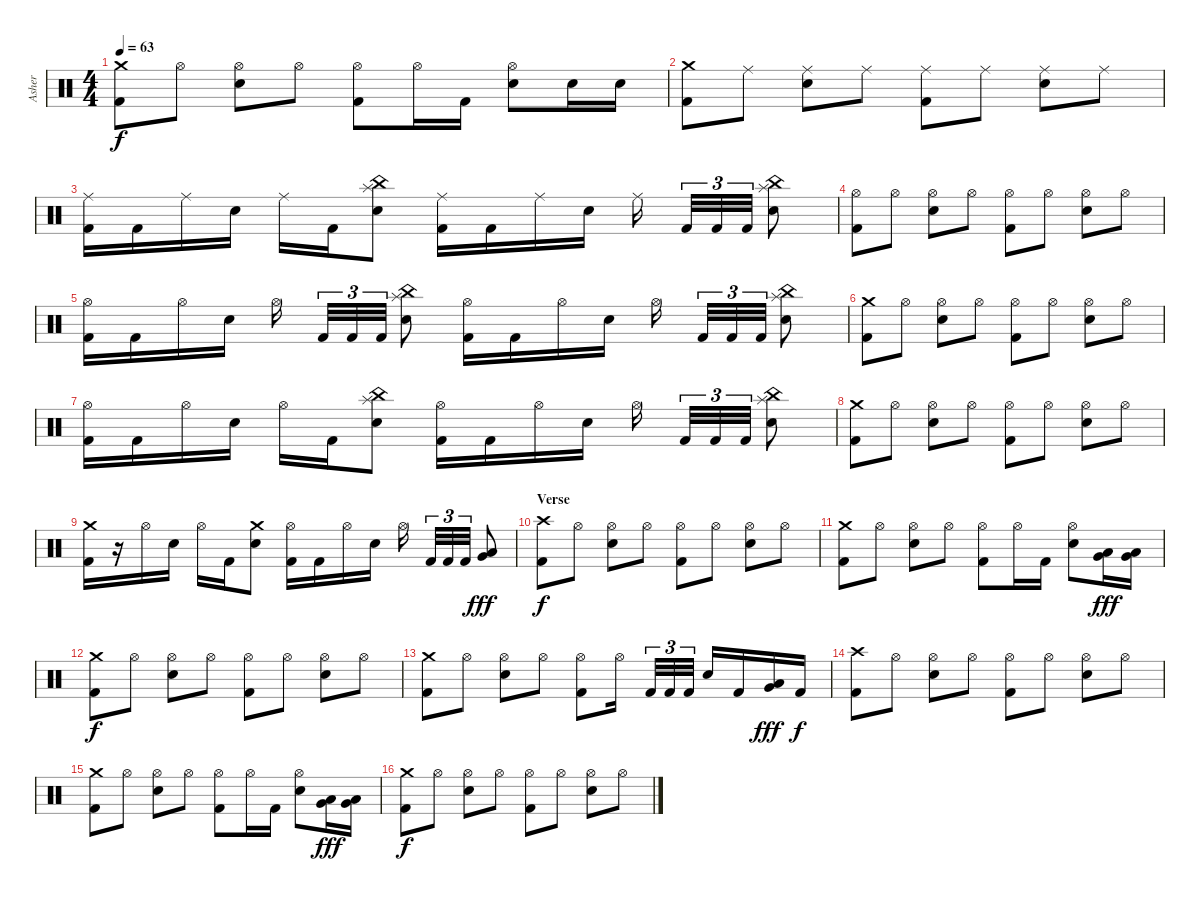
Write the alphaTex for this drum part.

\track ("Asher" "Asher") {instrument percussion}
\staff {score}
\articulation defaults
\ts (4 4)
\tempo 63
\clef neutral
\ks c
("Crash medium (hit)" "Kick (hit) 2").8{dy f} "Hi-Hat (open)".8 ("Hi-Hat (open)" "Electric Snare (hit)").8 "Hi-Hat (open)".8 ("Hi-Hat (open)" "Kick (hit) 2").8 "Hi-Hat (open)".16 "Kick (hit) 2".16 ("Hi-Hat (open)" "Electric Snare (hit)").8 "Electric Snare (hit)".16 "Electric Snare (hit)".16 |
("Crash medium (hit)" "Kick (hit) 2").8 "Ride (middle)".8 ("Ride (middle)" "Electric Snare (hit)").8 "Ride (middle)".8 ("Ride (middle)" "Kick (hit) 2").8 "Ride (middle)".8 ("Ride (middle)" "Electric Snare (hit)").8 "Ride (middle)".8 |
("Ride (middle)" "Kick (hit) 2").16 "Kick (hit) 2".16 "Ride (middle)".16 "Electric Snare (hit)".16 "Ride (middle)".16 "Kick (hit) 2".16 ("China (hit)" "Splash (hit)" "Electric Snare (hit)").8 ("Ride (middle)" "Kick (hit) 2").16 "Kick (hit) 2".16 "Ride (middle)".16 "Electric Snare (hit)".16 "Ride (middle)".16 "Kick (hit) 2".32{tu (3 2)} "Kick (hit) 2".32{tu (3 2)} "Kick (hit) 2".32{tu (3 2)} ("China (hit)" "Splash (hit)" "Electric Snare (hit)").8 |
("Hi-Hat (open)" "Kick (hit) 2").8 "Hi-Hat (open)".8 ("Hi-Hat (open)" "Electric Snare (hit)").8 "Hi-Hat (open)".8 ("Hi-Hat (open)" "Kick (hit) 2").8 "Hi-Hat (open)".8 ("Hi-Hat (open)" "Electric Snare (hit)").8 "Hi-Hat (open)".8 |
("Hi-Hat (open)" "Kick (hit) 2").16 "Kick (hit) 2".16 "Hi-Hat (open)".16 "Electric Snare (hit)".16 "Hi-Hat (open)".16 "Kick (hit) 2".32{tu (3 2)} "Kick (hit) 2".32{tu (3 2)} "Kick (hit) 2".32{tu (3 2)} ("China (hit)" "Splash (hit)" "Electric Snare (hit)").8 ("Hi-Hat (open)" "Kick (hit) 2").16 "Kick (hit) 2".16 "Hi-Hat (open)".16 "Electric Snare (hit)".16 "Hi-Hat (open)".16 "Kick (hit) 2".32{tu (3 2)} "Kick (hit) 2".32{tu (3 2)} "Kick (hit) 2".32{tu (3 2)} ("China (hit)" "Splash (hit)" "Electric Snare (hit)").8 |
("Crash medium (hit)" "Kick (hit) 2").8 "Hi-Hat (open)".8 ("Hi-Hat (open)" "Electric Snare (hit)").8 "Hi-Hat (open)".8 ("Hi-Hat (open)" "Kick (hit) 2").8 "Hi-Hat (open)".8 ("Hi-Hat (open)" "Electric Snare (hit)").8 "Hi-Hat (open)".8 |
("Hi-Hat (open)" "Kick (hit) 2").16 "Kick (hit) 2".16 "Hi-Hat (open)".16 "Electric Snare (hit)".16 "Hi-Hat (open)".16 "Kick (hit) 2".16 ("China (hit)" "Splash (hit)" "Electric Snare (hit)").8 ("Hi-Hat (open)" "Kick (hit) 2").16 "Kick (hit) 2".16 "Hi-Hat (open)".16 "Electric Snare (hit)".16 "Hi-Hat (open)".16 "Kick (hit) 2".32{tu (3 2)} "Kick (hit) 2".32{tu (3 2)} "Kick (hit) 2".32{tu (3 2)} ("China (hit)" "Splash (hit)" "Electric Snare (hit)").8 |
("Crash medium (hit)" "Kick (hit) 2").8 "Hi-Hat (open)".8 ("Hi-Hat (open)" "Electric Snare (hit)").8 "Hi-Hat (open)".8 ("Hi-Hat (open)" "Kick (hit) 2").8 "Hi-Hat (open)".8 ("Hi-Hat (open)" "Electric Snare (hit)").8 "Hi-Hat (open)".8 |
("Crash medium (hit)" "Kick (hit) 2").16 r.16 "Hi-Hat (open)".16 "Electric Snare (hit)".16 "Hi-Hat (open)".16 "Kick (hit) 2".16 ("Crash medium (hit)" "Electric Snare (hit)").8 ("Hi-Hat (open)" "Kick (hit) 2").16 "Kick (hit) 2".16 "Hi-Hat (open)".16 "Electric Snare (hit)".16 "Hi-Hat (open)".16 "Kick (hit) 2".32{tu (3 2)} "Kick (hit) 2".32{tu (3 2)} "Kick (hit) 2".32{tu (3 2)} ("Very Low Tom (hit)" "Low Floor Tom (hit)").8{dy fff} |
\section ("" "Verse")
("Crash high (hit)" "Kick (hit) 2").8{dy f} "Hi-Hat (open)".8 ("Hi-Hat (open)" "Electric Snare (hit)").8 "Hi-Hat (open)".8 ("Hi-Hat (open)" "Kick (hit) 2").8 "Hi-Hat (open)".8 ("Hi-Hat (open)" "Electric Snare (hit)").8 "Hi-Hat (open)".8 |
("Crash medium (hit)" "Kick (hit) 2").8 "Hi-Hat (open)".8 ("Hi-Hat (open)" "Electric Snare (hit)").8 "Hi-Hat (open)".8 ("Hi-Hat (open)" "Kick (hit) 2").8 "Hi-Hat (open)".16 "Kick (hit) 2".16 ("Hi-Hat (open)" "Electric Snare (hit)").8 ("Very Low Tom (hit)" "Low Floor Tom (hit)").16{dy fff} ("Very Low Tom (hit)" "Low Floor Tom (hit)").16 |
("Crash medium (hit)" "Kick (hit) 2").8{dy f} "Hi-Hat (open)".8 ("Hi-Hat (open)" "Electric Snare (hit)").8 "Hi-Hat (open)".8 ("Hi-Hat (open)" "Kick (hit) 2").8 "Hi-Hat (open)".8 ("Hi-Hat (open)" "Electric Snare (hit)").8 "Hi-Hat (open)".8 |
("Crash medium (hit)" "Kick (hit) 2").8 "Hi-Hat (open)".8 ("Hi-Hat (open)" "Electric Snare (hit)").8 "Hi-Hat (open)".8 ("Hi-Hat (open)" "Kick (hit) 2").8 "Hi-Hat (open)".16 "Kick (hit) 2".32{tu (3 2)} "Kick (hit) 2".32{tu (3 2)} "Kick (hit) 2".32{tu (3 2)} "Electric Snare (hit)".16 "Kick (hit) 2".16 ("Very Low Tom (hit)" "Low Floor Tom (hit)").16{dy fff} "Kick (hit) 2".16{dy f} |
("Crash high (hit)" "Kick (hit) 2").8 "Hi-Hat (open)".8 ("Hi-Hat (open)" "Electric Snare (hit)").8 "Hi-Hat (open)".8 ("Hi-Hat (open)" "Kick (hit) 2").8 "Hi-Hat (open)".8 ("Hi-Hat (open)" "Electric Snare (hit)").8 "Hi-Hat (open)".8 |
("Crash medium (hit)" "Kick (hit) 2").8 "Hi-Hat (open)".8 ("Hi-Hat (open)" "Electric Snare (hit)").8 "Hi-Hat (open)".8 ("Hi-Hat (open)" "Kick (hit) 2").8 "Hi-Hat (open)".16 "Kick (hit) 2".16 ("Hi-Hat (open)" "Electric Snare (hit)").8 ("Very Low Tom (hit)" "Low Floor Tom (hit)").16{dy fff} ("Very Low Tom (hit)" "Low Floor Tom (hit)").16 |
("Crash medium (hit)" "Kick (hit) 2").8{dy f} "Hi-Hat (open)".8 ("Hi-Hat (open)" "Electric Snare (hit)").8 "Hi-Hat (open)".8 ("Hi-Hat (open)" "Kick (hit) 2").8 "Hi-Hat (open)".8 ("Hi-Hat (open)" "Electric Snare (hit)").8 "Hi-Hat (open)".8
